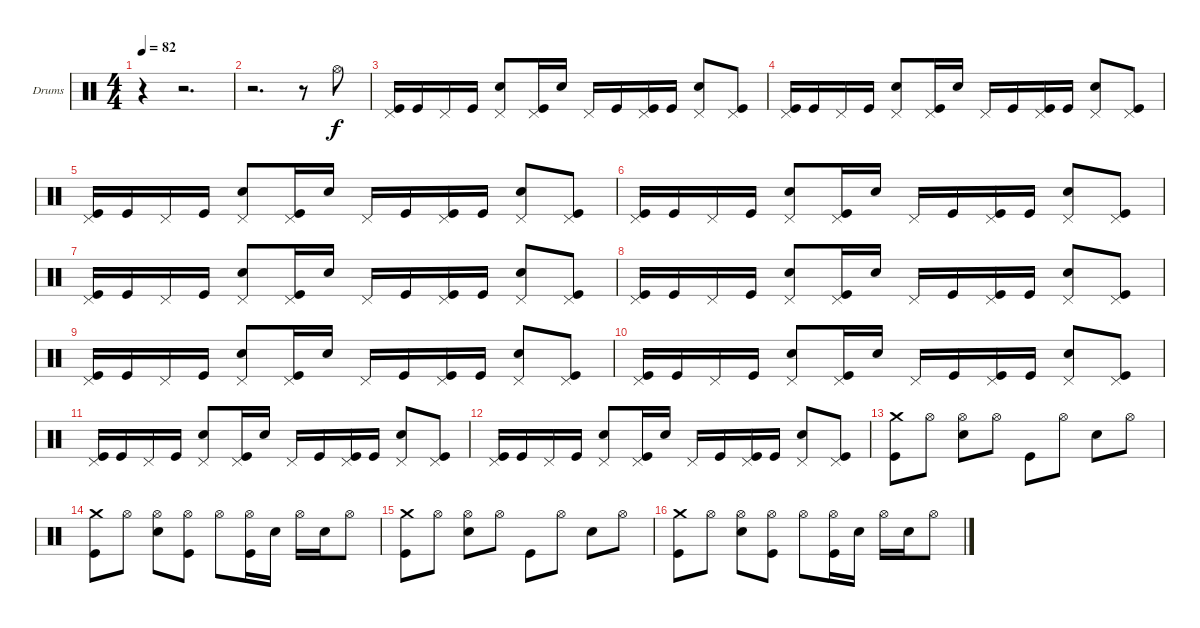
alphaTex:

\bracketExtendMode groupsimilarinstruments
\firstSystemTrackNameOrientation horizontal
\otherSystemsTrackNameOrientation horizontal
\track ("Drumkit" "Drums") {instrument percussion}
\staff {score}
\articulation defaults
\ts (4 4)
\tempo 82
\clef neutral
\ks c
r.4{dy f} r.2{d} |
r.2{d} r.8 "Hi-Hat (open)".8 |
("Pedal Hi-Hat (hit)" "Kick (hit)").16 "Kick (hit)".16 "Pedal Hi-Hat (hit)".16 "Kick (hit)".16 ("Pedal Hi-Hat (hit)" "Snare (hit) 2").8 ("Pedal Hi-Hat (hit)" "Kick (hit)").16 "Snare (hit) 2".16 "Pedal Hi-Hat (hit)".16 "Kick (hit)".16 ("Pedal Hi-Hat (hit)" "Kick (hit)").16 "Kick (hit)".16 ("Pedal Hi-Hat (hit)" "Snare (hit) 2").8 ("Pedal Hi-Hat (hit)" "Kick (hit)").8 |
("Pedal Hi-Hat (hit)" "Kick (hit)").16 "Kick (hit)".16 "Pedal Hi-Hat (hit)".16 "Kick (hit)".16 ("Pedal Hi-Hat (hit)" "Snare (hit) 2").8 ("Pedal Hi-Hat (hit)" "Kick (hit)").16 "Snare (hit) 2".16 "Pedal Hi-Hat (hit)".16 "Kick (hit)".16 ("Pedal Hi-Hat (hit)" "Kick (hit)").16 "Kick (hit)".16 ("Pedal Hi-Hat (hit)" "Snare (hit) 2").8 ("Pedal Hi-Hat (hit)" "Kick (hit)").8 |
("Pedal Hi-Hat (hit)" "Kick (hit)").16 "Kick (hit)".16 "Pedal Hi-Hat (hit)".16 "Kick (hit)".16 ("Pedal Hi-Hat (hit)" "Snare (hit) 2").8 ("Pedal Hi-Hat (hit)" "Kick (hit)").16 "Snare (hit) 2".16 "Pedal Hi-Hat (hit)".16 "Kick (hit)".16 ("Pedal Hi-Hat (hit)" "Kick (hit)").16 "Kick (hit)".16 ("Pedal Hi-Hat (hit)" "Snare (hit) 2").8 ("Pedal Hi-Hat (hit)" "Kick (hit)").8 |
("Pedal Hi-Hat (hit)" "Kick (hit)").16 "Kick (hit)".16 "Pedal Hi-Hat (hit)".16 "Kick (hit)".16 ("Pedal Hi-Hat (hit)" "Snare (hit) 2").8 ("Pedal Hi-Hat (hit)" "Kick (hit)").16 "Snare (hit) 2".16 "Pedal Hi-Hat (hit)".16 "Kick (hit)".16 ("Pedal Hi-Hat (hit)" "Kick (hit)").16 "Kick (hit)".16 ("Pedal Hi-Hat (hit)" "Snare (hit) 2").8 ("Pedal Hi-Hat (hit)" "Kick (hit)").8 |
("Pedal Hi-Hat (hit)" "Kick (hit)").16 "Kick (hit)".16 "Pedal Hi-Hat (hit)".16 "Kick (hit)".16 ("Pedal Hi-Hat (hit)" "Snare (hit) 2").8 ("Pedal Hi-Hat (hit)" "Kick (hit)").16 "Snare (hit) 2".16 "Pedal Hi-Hat (hit)".16 "Kick (hit)".16 ("Pedal Hi-Hat (hit)" "Kick (hit)").16 "Kick (hit)".16 ("Pedal Hi-Hat (hit)" "Snare (hit) 2").8 ("Pedal Hi-Hat (hit)" "Kick (hit)").8 |
("Pedal Hi-Hat (hit)" "Kick (hit)").16 "Kick (hit)".16 "Pedal Hi-Hat (hit)".16 "Kick (hit)".16 ("Pedal Hi-Hat (hit)" "Snare (hit) 2").8 ("Pedal Hi-Hat (hit)" "Kick (hit)").16 "Snare (hit) 2".16 "Pedal Hi-Hat (hit)".16 "Kick (hit)".16 ("Pedal Hi-Hat (hit)" "Kick (hit)").16 "Kick (hit)".16 ("Pedal Hi-Hat (hit)" "Snare (hit) 2").8 ("Pedal Hi-Hat (hit)" "Kick (hit)").8 |
("Pedal Hi-Hat (hit)" "Kick (hit)").16 "Kick (hit)".16 "Pedal Hi-Hat (hit)".16 "Kick (hit)".16 ("Pedal Hi-Hat (hit)" "Snare (hit) 2").8 ("Pedal Hi-Hat (hit)" "Kick (hit)").16 "Snare (hit) 2".16 "Pedal Hi-Hat (hit)".16 "Kick (hit)".16 ("Pedal Hi-Hat (hit)" "Kick (hit)").16 "Kick (hit)".16 ("Pedal Hi-Hat (hit)" "Snare (hit) 2").8 ("Pedal Hi-Hat (hit)" "Kick (hit)").8 |
("Pedal Hi-Hat (hit)" "Kick (hit)").16 "Kick (hit)".16 "Pedal Hi-Hat (hit)".16 "Kick (hit)".16 ("Pedal Hi-Hat (hit)" "Snare (hit) 2").8 ("Pedal Hi-Hat (hit)" "Kick (hit)").16 "Snare (hit) 2".16 "Pedal Hi-Hat (hit)".16 "Kick (hit)".16 ("Pedal Hi-Hat (hit)" "Kick (hit)").16 "Kick (hit)".16 ("Pedal Hi-Hat (hit)" "Snare (hit) 2").8 ("Pedal Hi-Hat (hit)" "Kick (hit)").8 |
("Pedal Hi-Hat (hit)" "Kick (hit)").16 "Kick (hit)".16 "Pedal Hi-Hat (hit)".16 "Kick (hit)".16 ("Pedal Hi-Hat (hit)" "Snare (hit) 2").8 ("Pedal Hi-Hat (hit)" "Kick (hit)").16 "Snare (hit) 2".16 "Pedal Hi-Hat (hit)".16 "Kick (hit)".16 ("Pedal Hi-Hat (hit)" "Kick (hit)").16 "Kick (hit)".16 ("Pedal Hi-Hat (hit)" "Snare (hit) 2").8 ("Pedal Hi-Hat (hit)" "Kick (hit)").8 |
("Pedal Hi-Hat (hit)" "Kick (hit)").16 "Kick (hit)".16 "Pedal Hi-Hat (hit)".16 "Kick (hit)".16 ("Pedal Hi-Hat (hit)" "Snare (hit) 2").8 ("Pedal Hi-Hat (hit)" "Kick (hit)").16 "Snare (hit) 2".16 "Pedal Hi-Hat (hit)".16 "Kick (hit)".16 ("Pedal Hi-Hat (hit)" "Kick (hit)").16 "Kick (hit)".16 ("Pedal Hi-Hat (hit)" "Snare (hit) 2").8 ("Pedal Hi-Hat (hit)" "Kick (hit)").8 |
("Crash medium (hit)" "Kick (hit)").8 "Hi-Hat (open)".8 ("Hi-Hat (open)" "Snare (hit) 2").8 "Hi-Hat (open)".8 "Kick (hit)".8 "Hi-Hat (open)".8 "Snare (hit) 2".8 "Hi-Hat (open)".8 |
("Crash medium (hit)" "Kick (hit)").8 "Hi-Hat (open)".8 ("Hi-Hat (open)" "Snare (hit) 2").8 ("Hi-Hat (open)" "Kick (hit)").8 "Hi-Hat (open)".8 ("Hi-Hat (open)" "Kick (hit)").16 "Snare (hit) 2".16 "Hi-Hat (open)".16 "Snare (hit) 2".16 "Hi-Hat (open)".8 |
("Crash medium (hit)" "Kick (hit)").8 "Hi-Hat (open)".8 ("Hi-Hat (open)" "Snare (hit) 2").8 "Hi-Hat (open)".8 "Kick (hit)".8 "Hi-Hat (open)".8 "Snare (hit) 2".8 "Hi-Hat (open)".8 |
("Crash medium (hit)" "Kick (hit)").8 "Hi-Hat (open)".8 ("Hi-Hat (open)" "Snare (hit) 2").8 ("Hi-Hat (open)" "Kick (hit)").8 "Hi-Hat (open)".8 ("Hi-Hat (open)" "Kick (hit)").16 "Snare (hit) 2".16 "Hi-Hat (open)".16 "Snare (hit) 2".16 "Hi-Hat (open)".8
